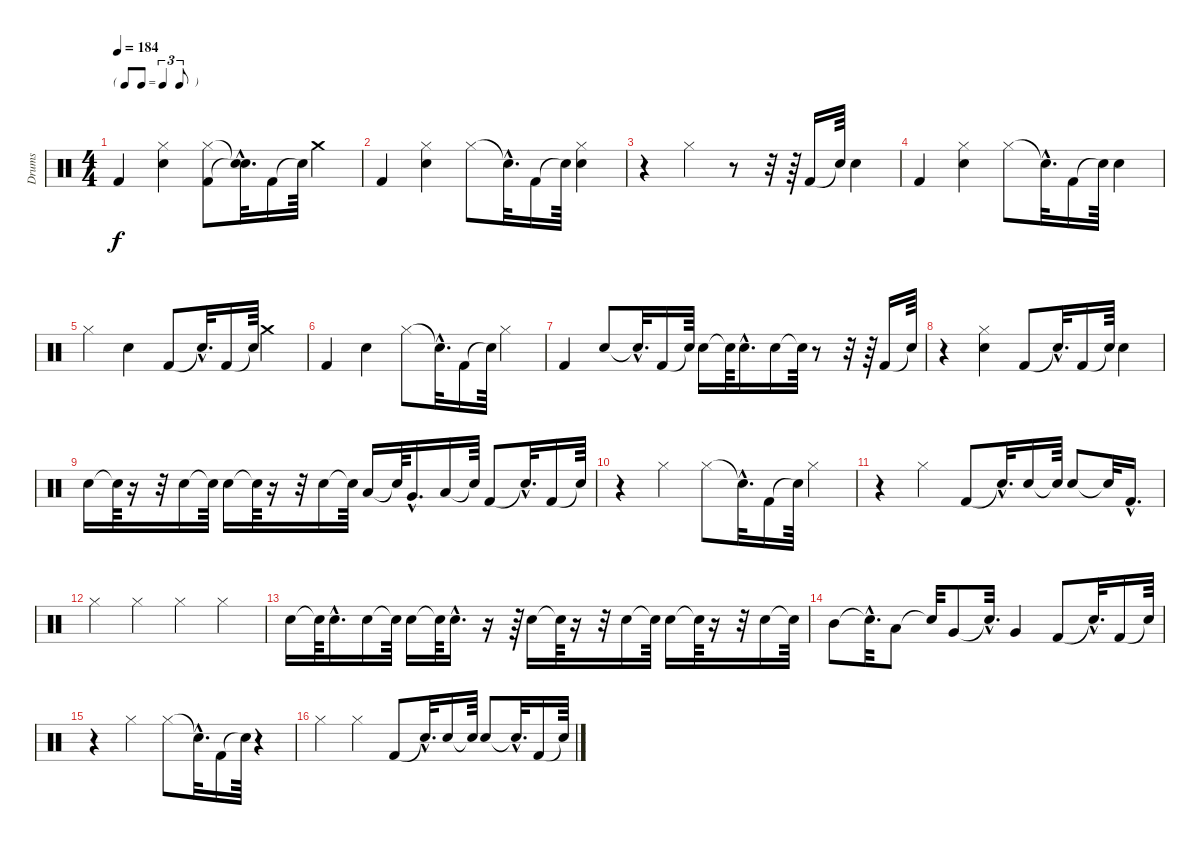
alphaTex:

\track ("Drums" "Drums") {instrument percussion}
\staff {score}
\articulation defaults
\ts (4 4)
\tf triplet8th
\tempo 184
\clef neutral
\ks c "Kick (hit) 2".4{dy f}
("Hi-Hat (closed)" "Snare (hit) 2").4 ("Hi-Hat (closed)" "Kick (hit) 2").8 ("Snare (hit)"{hac t} "Snare (hit)"{hac t}).32{d} "Kick (hit) 2".16 "Snare (hit)"{t}.64 "Crash medium (hit)".4 |
"Kick (hit) 2".4 ("Hi-Hat (closed)" "Snare (hit) 2").4 "Hi-Hat (closed)".8 "Snare (hit)"{hac t}.32{d} "Kick (hit) 2".16 "Snare (hit)"{t}.64 ("Hi-Hat (closed)" "Snare (hit) 2").4 |
r.4 "Hi-Hat (closed)".4 r.8 r.32 r.64 "Kick (hit) 2".16 "Snare (hit)"{t}.64 "Snare (hit) 2".4 |
"Kick (hit) 2".4 ("Hi-Hat (closed)" "Snare (hit) 2").4 "Hi-Hat (closed)".8 "Snare (hit)"{hac t}.32{d} "Kick (hit) 2".16 "Snare (hit)"{t}.64 "Snare (hit) 2".4 |
"Hi-Hat (closed)".4 "Snare (hit) 2".4 "Kick (hit) 2".8 "Snare (hit)"{hac t}.32{d} "Kick (hit) 2".16 "Snare (hit)"{t}.64 "Crash medium (hit)".4 |
"Kick (hit) 2".4 "Snare (hit) 2".4 "Hi-Hat (closed)".8 "Snare (hit)"{hac t}.32{d} "Kick (hit) 2".16 "Snare (hit)"{t}.64 "Hi-Hat (closed)".4 |
"Kick (hit) 2".4 "Snare (hit) 2".8 "Snare (hit)"{hac t}.32{d} "Kick (hit) 2".16 "Snare (hit)"{t}.64 "Snare (hit) 2".16 "Snare (hit)"{t}.64 "Snare (hit) 2"{hac}.16{d} "Snare (hit) 2".16 "Snare (hit)"{t}.64 r.8 r.32 r.64 "Kick (hit) 2".16 "Snare (hit)"{t}.64 |
r.4 ("Hi-Hat (closed)" "Snare (hit) 2").4 "Kick (hit) 2".8 "Snare (hit)"{hac t}.32{d} "Kick (hit) 2".16 "Snare (hit)"{t}.64 "Snare (hit) 2".4 |
"Snare (hit) 2".16 "Snare (hit)"{t}.64 r.16 r.32 "Snare (hit) 2".16 "Snare (hit)"{t}.64 "Snare (hit) 2".16 "Snare (hit)"{t}.64 r.16 r.32 "Snare (hit) 2".16 "Snare (hit)"{t}.64 "Low Tom (hit)".16 "Snare (hit)"{t}.64 "Very Low Tom (hit)"{hac}.16{d} "Low Floor Tom (hit)".16 "Snare (hit)"{t}.64 "Kick (hit) 2".8 "Snare (hit)"{hac t}.32{d} "Kick (hit) 2".16 "Snare (hit)"{t}.64 |
r.4 "Hi-Hat (closed)".4 "Hi-Hat (closed)".8 "Snare (hit)"{hac t}.32{d} "Kick (hit) 2".16 "Snare (hit)"{t}.64 "Hi-Hat (closed)".4 |
r.4 "Hi-Hat (closed)".4 "Kick (hit) 2".8 "Snare (hit)"{hac t}.32{d} "Snare (hit) 2".16 "Snare (hit)"{t}.64 "Snare (hit) 2".8 "Snare (hit)"{t}.32 "Kick (hit) 2"{hac}.16{d} |
"Hi-Hat (closed)".4 "Hi-Hat (closed)".4 "Hi-Hat (closed)".4 "Hi-Hat (closed)".4 |
"Snare (hit) 2".16 "Snare (hit)"{t}.64 "Snare (hit) 2"{hac}.16{d} "Snare (hit) 2".16 "Snare (hit)"{t}.64 "Snare (hit) 2".16 "Snare (hit)"{t}.64 "Snare (hit) 2"{hac}.16{d} r.16 r.64 "Snare (hit) 2".16 "Snare (hit)"{t}.64 r.16 r.32 "Snare (hit) 2".16 "Snare (hit)"{t}.64 "Snare (hit) 2".16 "Snare (hit)"{t}.64 r.16 r.32 "Snare (hit) 2".16 "Snare (hit)"{t}.64 |
"Mid Tom (hit)".8 "Snare (hit)"{hac t}.32{d} "Low Tom (hit)".8 "Snare (hit)"{t}.32 "Very Low Tom (hit)".8 "Snare (hit)"{hac t}.32{d} "Very Low Tom (hit)".4 "Kick (hit) 2".8 "Snare (hit)"{hac t}.32{d} "Kick (hit) 2".16 "Snare (hit)"{t}.64 |
r.4 "Hi-Hat (closed)".4 "Hi-Hat (closed)".8 "Snare (hit)"{hac t}.32{d} "Kick (hit) 2".16 "Snare (hit)"{t}.64 r.4 |
"Hi-Hat (closed)".4 "Hi-Hat (closed)".4 "Kick (hit) 2".8 "Snare (hit)"{hac t}.32{d} "Snare (hit) 2".16 "Snare (hit)"{t}.64 "Snare (hit) 2".8 "Snare (hit)"{hac t}.32{d} "Kick (hit) 2".16 "Snare (hit)"{t}.64
